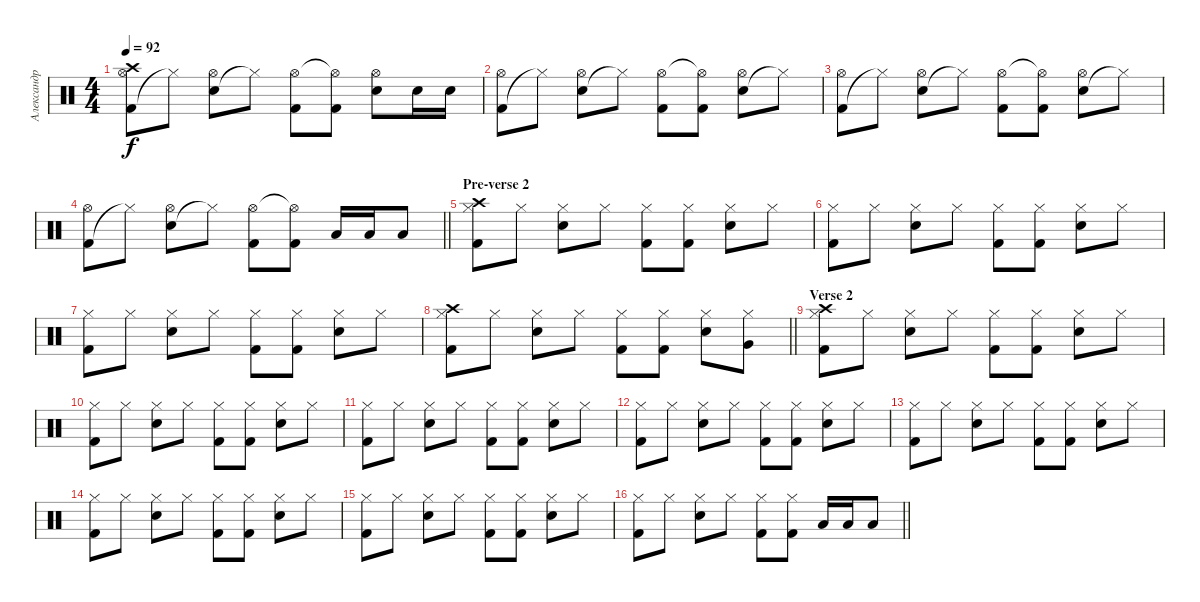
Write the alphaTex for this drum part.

\track ("Александр Барзилович" "Александр ") {instrument percussion}
\staff {score}
\articulation defaults
\ts (4 4)
\tempo 92
\clef neutral
\ks c
("Kick (hit) 2" "Hi-Hat (open)" "Crash high (hit)").8{dy f} "Hi-Hat (closed)"{t}.8 ("Electric Snare (hit)" "Hi-Hat (open)").8 "Hi-Hat (closed)"{t}.8 ("Kick (hit) 2" "Hi-Hat (open)").8 ("Kick (hit) 2" "Hi-Hat (open)"{t}).8 ("Electric Snare (hit)" "Hi-Hat (open)").8 "Electric Snare (hit)".16 "Electric Snare (hit)".16 |
("Kick (hit) 2" "Hi-Hat (open)").8 "Hi-Hat (closed)"{t}.8 ("Electric Snare (hit)" "Hi-Hat (open)").8 "Hi-Hat (closed)"{t}.8 ("Kick (hit) 2" "Hi-Hat (open)").8 ("Kick (hit) 2" "Hi-Hat (open)"{t}).8 ("Electric Snare (hit)" "Hi-Hat (open)").8 "Hi-Hat (closed)"{t}.8 |
("Kick (hit) 2" "Hi-Hat (open)").8 "Hi-Hat (closed)"{t}.8 ("Electric Snare (hit)" "Hi-Hat (open)").8 "Hi-Hat (closed)"{t}.8 ("Kick (hit) 2" "Hi-Hat (open)").8 ("Kick (hit) 2" "Hi-Hat (open)"{t}).8 ("Electric Snare (hit)" "Hi-Hat (open)").8 "Hi-Hat (closed)"{t}.8 |
\barLineRight lightlight
("Kick (hit) 2" "Hi-Hat (open)").8 "Hi-Hat (closed)"{t}.8 ("Electric Snare (hit)" "Hi-Hat (open)").8 "Hi-Hat (closed)"{t}.8 ("Kick (hit) 2" "Hi-Hat (open)").8 ("Kick (hit) 2" "Hi-Hat (open)"{t}).8 "Low Floor Tom (hit)".16 "Low Floor Tom (hit)".16 "Low Floor Tom (hit)".8 |
\section ("" "Pre-verse 2")
("Kick (hit) 2" "Hi-Hat (closed)" "Crash high (hit)").8 "Hi-Hat (closed)".8 ("Electric Snare (hit)" "Hi-Hat (closed)").8 "Hi-Hat (closed)".8 ("Kick (hit) 2" "Hi-Hat (closed)").8 ("Kick (hit) 2" "Hi-Hat (closed)").8 ("Electric Snare (hit)" "Hi-Hat (closed)").8 "Hi-Hat (closed)".8 |
("Kick (hit) 2" "Hi-Hat (closed)").8 "Hi-Hat (closed)".8 ("Electric Snare (hit)" "Hi-Hat (closed)").8 "Hi-Hat (closed)".8 ("Kick (hit) 2" "Hi-Hat (closed)").8 ("Kick (hit) 2" "Hi-Hat (closed)").8 ("Electric Snare (hit)" "Hi-Hat (closed)").8 "Hi-Hat (closed)".8 |
("Kick (hit) 2" "Hi-Hat (closed)").8 "Hi-Hat (closed)".8 ("Electric Snare (hit)" "Hi-Hat (closed)").8 "Hi-Hat (closed)".8 ("Kick (hit) 2" "Hi-Hat (closed)").8 ("Kick (hit) 2" "Hi-Hat (closed)").8 ("Electric Snare (hit)" "Hi-Hat (closed)").8 "Hi-Hat (closed)".8 |
\barLineRight lightlight
("Kick (hit) 2" "Hi-Hat (closed)" "Crash high (hit)").8 "Hi-Hat (closed)".8 ("Electric Snare (hit)" "Hi-Hat (closed)").8 "Hi-Hat (closed)".8 ("Kick (hit) 2" "Hi-Hat (closed)").8 ("Kick (hit) 2" "Hi-Hat (closed)").8 ("Electric Snare (hit)" "Hi-Hat (closed)").8 ("Hi-Hat (closed)" "Very Low Tom (hit)").8 |
\section ("" "Verse 2")
("Kick (hit) 2" "Hi-Hat (closed)" "Crash high (hit)").8 "Hi-Hat (closed)".8 ("Electric Snare (hit)" "Hi-Hat (closed)").8 "Hi-Hat (closed)".8 ("Kick (hit) 2" "Hi-Hat (closed)").8 ("Kick (hit) 2" "Hi-Hat (closed)").8 ("Electric Snare (hit)" "Hi-Hat (closed)").8 "Hi-Hat (closed)".8 |
("Kick (hit) 2" "Hi-Hat (closed)").8 "Hi-Hat (closed)".8 ("Electric Snare (hit)" "Hi-Hat (closed)").8 "Hi-Hat (closed)".8 ("Kick (hit) 2" "Hi-Hat (closed)").8 ("Kick (hit) 2" "Hi-Hat (closed)").8 ("Electric Snare (hit)" "Hi-Hat (closed)").8 "Hi-Hat (closed)".8 |
("Kick (hit) 2" "Hi-Hat (closed)").8 "Hi-Hat (closed)".8 ("Electric Snare (hit)" "Hi-Hat (closed)").8 "Hi-Hat (closed)".8 ("Kick (hit) 2" "Hi-Hat (closed)").8 ("Kick (hit) 2" "Hi-Hat (closed)").8 ("Electric Snare (hit)" "Hi-Hat (closed)").8 "Hi-Hat (closed)".8 |
("Kick (hit) 2" "Hi-Hat (closed)").8 "Hi-Hat (closed)".8 ("Electric Snare (hit)" "Hi-Hat (closed)").8 "Hi-Hat (closed)".8 ("Kick (hit) 2" "Hi-Hat (closed)").8 ("Kick (hit) 2" "Hi-Hat (closed)").8 ("Electric Snare (hit)" "Hi-Hat (closed)").8 "Hi-Hat (closed)".8 |
("Kick (hit) 2" "Hi-Hat (closed)").8 "Hi-Hat (closed)".8 ("Electric Snare (hit)" "Hi-Hat (closed)").8 "Hi-Hat (closed)".8 ("Kick (hit) 2" "Hi-Hat (closed)").8 ("Kick (hit) 2" "Hi-Hat (closed)").8 ("Electric Snare (hit)" "Hi-Hat (closed)").8 "Hi-Hat (closed)".8 |
("Kick (hit) 2" "Hi-Hat (closed)").8 "Hi-Hat (closed)".8 ("Electric Snare (hit)" "Hi-Hat (closed)").8 "Hi-Hat (closed)".8 ("Kick (hit) 2" "Hi-Hat (closed)").8 ("Kick (hit) 2" "Hi-Hat (closed)").8 ("Electric Snare (hit)" "Hi-Hat (closed)").8 "Hi-Hat (closed)".8 |
("Kick (hit) 2" "Hi-Hat (closed)").8 "Hi-Hat (closed)".8 ("Electric Snare (hit)" "Hi-Hat (closed)").8 "Hi-Hat (closed)".8 ("Kick (hit) 2" "Hi-Hat (closed)").8 ("Kick (hit) 2" "Hi-Hat (closed)").8 ("Electric Snare (hit)" "Hi-Hat (closed)").8 "Hi-Hat (closed)".8 |
\barLineRight lightlight
("Kick (hit) 2" "Hi-Hat (closed)").8 "Hi-Hat (closed)".8 ("Electric Snare (hit)" "Hi-Hat (closed)").8 "Hi-Hat (closed)".8 ("Kick (hit) 2" "Hi-Hat (closed)").8 ("Kick (hit) 2" "Hi-Hat (closed)").8 "Low Tom (hit)".16 "Low Tom (hit)".16 "Low Tom (hit)".8
